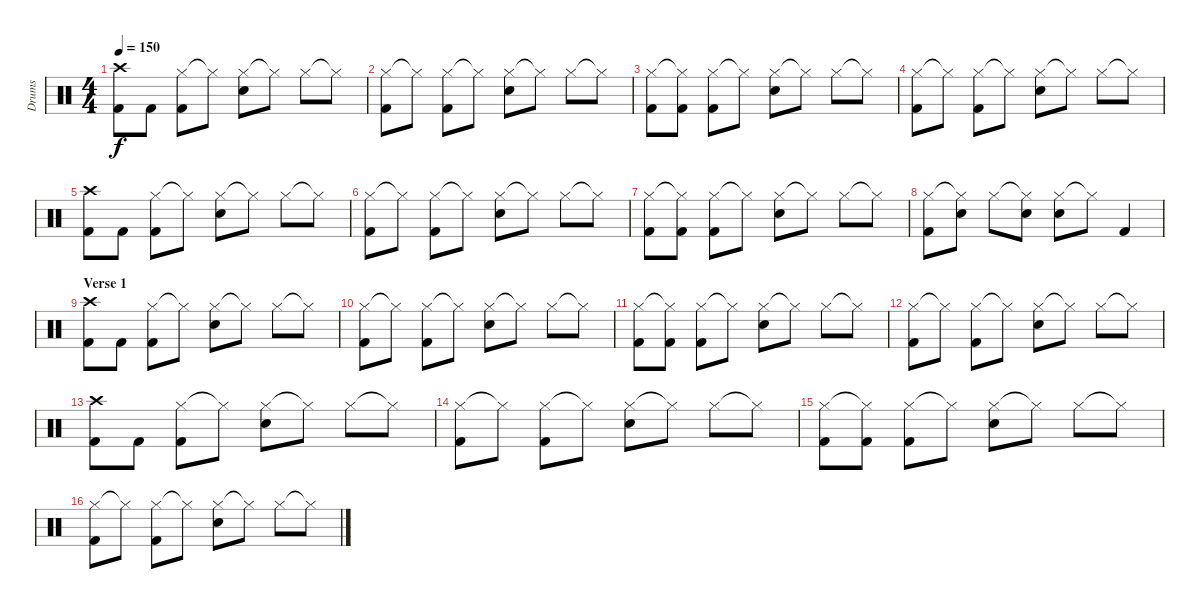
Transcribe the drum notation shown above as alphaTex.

\track ("Drums" "Drums") {instrument percussion}
\staff {score}
\articulation defaults
\ts (4 4)
\tempo 150
\clef neutral
\ks c
("Kick (hit) 2" "Crash high (hit)").8{dy f} "Kick (hit) 2".8 ("Hi-Hat (closed)" "Kick (hit) 2").8 "Hi-Hat (closed)"{t}.8 ("Hi-Hat (closed)" "Snare (hit) 2").8 "Hi-Hat (closed)"{t}.8 "Hi-Hat (closed)".8 "Hi-Hat (closed)"{t}.8 |
("Hi-Hat (closed)" "Kick (hit) 2").8 "Hi-Hat (closed)"{t}.8 ("Hi-Hat (closed)" "Kick (hit) 2").8 "Hi-Hat (closed)"{t}.8 ("Hi-Hat (closed)" "Snare (hit) 2").8 "Hi-Hat (closed)"{t}.8 "Hi-Hat (closed)".8 "Hi-Hat (closed)"{t}.8 |
("Hi-Hat (closed)" "Kick (hit) 2").8 ("Hi-Hat (closed)"{t} "Kick (hit) 2").8 ("Hi-Hat (closed)" "Kick (hit) 2").8 "Hi-Hat (closed)"{t}.8 ("Hi-Hat (closed)" "Snare (hit) 2").8 "Hi-Hat (closed)"{t}.8 "Hi-Hat (closed)".8 "Hi-Hat (closed)"{t}.8 |
("Hi-Hat (closed)" "Kick (hit) 2").8 "Hi-Hat (closed)"{t}.8 ("Hi-Hat (closed)" "Kick (hit) 2").8 "Hi-Hat (closed)"{t}.8 ("Hi-Hat (closed)" "Snare (hit) 2").8 "Hi-Hat (closed)"{t}.8 "Hi-Hat (closed)".8 "Hi-Hat (closed)"{t}.8 |
("Kick (hit) 2" "Crash high (hit)").8 "Kick (hit) 2".8 ("Hi-Hat (closed)" "Kick (hit) 2").8 "Hi-Hat (closed)"{t}.8 ("Hi-Hat (closed)" "Snare (hit) 2").8 "Hi-Hat (closed)"{t}.8 "Hi-Hat (closed)".8 "Hi-Hat (closed)"{t}.8 |
("Hi-Hat (closed)" "Kick (hit) 2").8 "Hi-Hat (closed)"{t}.8 ("Hi-Hat (closed)" "Kick (hit) 2").8 "Hi-Hat (closed)"{t}.8 ("Hi-Hat (closed)" "Snare (hit) 2").8 "Hi-Hat (closed)"{t}.8 "Hi-Hat (closed)".8 "Hi-Hat (closed)"{t}.8 |
("Hi-Hat (closed)" "Kick (hit) 2").8 ("Hi-Hat (closed)"{t} "Kick (hit) 2").8 ("Hi-Hat (closed)" "Kick (hit) 2").8 "Hi-Hat (closed)"{t}.8 ("Hi-Hat (closed)" "Snare (hit) 2").8 "Hi-Hat (closed)"{t}.8 "Hi-Hat (closed)".8 "Hi-Hat (closed)"{t}.8 |
("Hi-Hat (closed)" "Kick (hit) 2").8 ("Hi-Hat (closed)"{t} "Snare (hit) 2").8 "Hi-Hat (closed)".8 ("Hi-Hat (closed)"{t} "Snare (hit) 2").8 ("Hi-Hat (closed)" "Snare (hit) 2").8 "Hi-Hat (closed)"{t}.8 "Kick (hit) 2".4 |
\section ("" "Verse 1")
("Kick (hit) 2" "Crash high (hit)").8 "Kick (hit) 2".8 ("Hi-Hat (closed)" "Kick (hit) 2").8 "Hi-Hat (closed)"{t}.8 ("Hi-Hat (closed)" "Snare (hit) 2").8 "Hi-Hat (closed)"{t}.8 "Hi-Hat (closed)".8 "Hi-Hat (closed)"{t}.8 |
("Hi-Hat (closed)" "Kick (hit) 2").8 "Hi-Hat (closed)"{t}.8 ("Hi-Hat (closed)" "Kick (hit) 2").8 "Hi-Hat (closed)"{t}.8 ("Hi-Hat (closed)" "Snare (hit) 2").8 "Hi-Hat (closed)"{t}.8 "Hi-Hat (closed)".8 "Hi-Hat (closed)"{t}.8 |
("Hi-Hat (closed)" "Kick (hit) 2").8 ("Hi-Hat (closed)"{t} "Kick (hit) 2").8 ("Hi-Hat (closed)" "Kick (hit) 2").8 "Hi-Hat (closed)"{t}.8 ("Hi-Hat (closed)" "Snare (hit) 2").8 "Hi-Hat (closed)"{t}.8 "Hi-Hat (closed)".8 "Hi-Hat (closed)"{t}.8 |
("Hi-Hat (closed)" "Kick (hit) 2").8 "Hi-Hat (closed)"{t}.8 ("Hi-Hat (closed)" "Kick (hit) 2").8 "Hi-Hat (closed)"{t}.8 ("Hi-Hat (closed)" "Snare (hit) 2").8 "Hi-Hat (closed)"{t}.8 "Hi-Hat (closed)".8 "Hi-Hat (closed)"{t}.8 |
("Kick (hit) 2" "Crash high (hit)").8 "Kick (hit) 2".8 ("Hi-Hat (closed)" "Kick (hit) 2").8 "Hi-Hat (closed)"{t}.8 ("Hi-Hat (closed)" "Snare (hit) 2").8 "Hi-Hat (closed)"{t}.8 "Hi-Hat (closed)".8 "Hi-Hat (closed)"{t}.8 |
("Hi-Hat (closed)" "Kick (hit) 2").8 "Hi-Hat (closed)"{t}.8 ("Hi-Hat (closed)" "Kick (hit) 2").8 "Hi-Hat (closed)"{t}.8 ("Hi-Hat (closed)" "Snare (hit) 2").8 "Hi-Hat (closed)"{t}.8 "Hi-Hat (closed)".8 "Hi-Hat (closed)"{t}.8 |
("Hi-Hat (closed)" "Kick (hit) 2").8 ("Hi-Hat (closed)"{t} "Kick (hit) 2").8 ("Hi-Hat (closed)" "Kick (hit) 2").8 "Hi-Hat (closed)"{t}.8 ("Hi-Hat (closed)" "Snare (hit) 2").8 "Hi-Hat (closed)"{t}.8 "Hi-Hat (closed)".8 "Hi-Hat (closed)"{t}.8 |
("Hi-Hat (closed)" "Kick (hit) 2").8 "Hi-Hat (closed)"{t}.8 ("Hi-Hat (closed)" "Kick (hit) 2").8 "Hi-Hat (closed)"{t}.8 ("Hi-Hat (closed)" "Snare (hit) 2").8 "Hi-Hat (closed)"{t}.8 "Hi-Hat (closed)".8 "Hi-Hat (closed)"{t}.8
